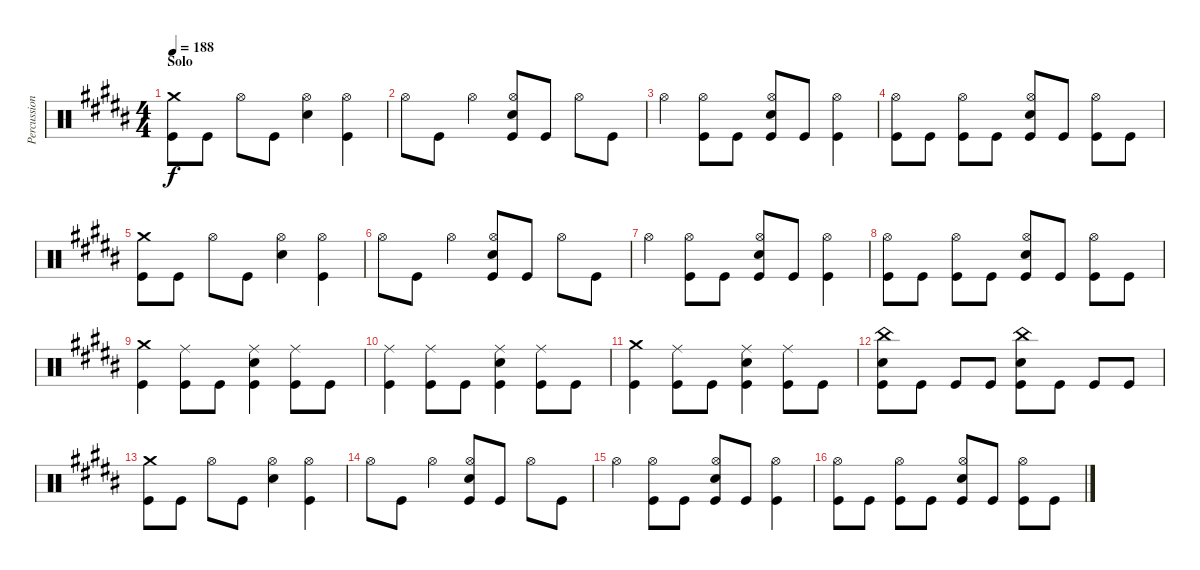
\track ("Percussion" "Percussion") {instrument percussion}
\staff {score}
\articulation defaults
\ts (4 4)
\section ("" "Solo")
\tempo 188
\clef neutral
\ks b
("Crash medium (hit)" "Kick (hit)").8{dy f} "Kick (hit)".8 "Hi-Hat (open)".8 "Kick (hit)".8 ("Hi-Hat (open)" "Electric Snare (hit)").4 ("Hi-Hat (open)" "Kick (hit)").4 |
"Hi-Hat (open)".8 "Kick (hit)".8 "Hi-Hat (open)".4 ("Hi-Hat (open)" "Electric Snare (hit)" "Kick (hit)").8 "Kick (hit)".8 "Hi-Hat (open)".8 "Kick (hit)".8 |
"Hi-Hat (open)".4 ("Hi-Hat (open)" "Kick (hit)").8 "Kick (hit)".8 ("Hi-Hat (open)" "Electric Snare (hit)" "Kick (hit)").8 "Kick (hit)".8 ("Hi-Hat (open)" "Kick (hit)").4 |
("Hi-Hat (open)" "Kick (hit)").8 "Kick (hit)".8 ("Hi-Hat (open)" "Kick (hit)").8 "Kick (hit)".8 ("Hi-Hat (open)" "Electric Snare (hit)" "Kick (hit)").8 "Kick (hit)".8 ("Hi-Hat (open)" "Kick (hit)").8 "Kick (hit)".8 |
("Crash medium (hit)" "Kick (hit)").8 "Kick (hit)".8 "Hi-Hat (open)".8 "Kick (hit)".8 ("Hi-Hat (open)" "Electric Snare (hit)").4 ("Hi-Hat (open)" "Kick (hit)").4 |
"Hi-Hat (open)".8 "Kick (hit)".8 "Hi-Hat (open)".4 ("Hi-Hat (open)" "Electric Snare (hit)" "Kick (hit)").8 "Kick (hit)".8 "Hi-Hat (open)".8 "Kick (hit)".8 |
"Hi-Hat (open)".4 ("Hi-Hat (open)" "Kick (hit)").8 "Kick (hit)".8 ("Hi-Hat (open)" "Electric Snare (hit)" "Kick (hit)").8 "Kick (hit)".8 ("Hi-Hat (open)" "Kick (hit)").4 |
("Hi-Hat (open)" "Kick (hit)").8 "Kick (hit)".8 ("Hi-Hat (open)" "Kick (hit)").8 "Kick (hit)".8 ("Hi-Hat (open)" "Electric Snare (hit)" "Kick (hit)").8 "Kick (hit)".8 ("Hi-Hat (open)" "Kick (hit)").8 "Kick (hit)".8 |
("Crash medium (hit)" "Kick (hit)").4 ("Ride (middle)" "Kick (hit)").8 "Kick (hit)".8 ("Ride (middle)" "Electric Snare (hit)" "Kick (hit)").4 ("Ride (middle)" "Kick (hit)").8 "Kick (hit)".8 |
("Ride (middle)" "Kick (hit)").4 ("Ride (middle)" "Kick (hit)").8 "Kick (hit)".8 ("Ride (middle)" "Electric Snare (hit)" "Kick (hit)").4 ("Ride (middle)" "Kick (hit)").8 "Kick (hit)".8 |
("Crash medium (hit)" "Kick (hit)").4 ("Ride (middle)" "Kick (hit)").8 "Kick (hit)".8 ("Ride (middle)" "Electric Snare (hit)" "Kick (hit)").4 ("Ride (middle)" "Kick (hit)").8 "Kick (hit)".8 |
("China (hit)" "Electric Snare (hit)" "Kick (hit)").8 "Kick (hit)".8 "Kick (hit)".8 "Kick (hit)".8 ("China (hit)" "Electric Snare (hit)" "Kick (hit)").8 "Kick (hit)".8 "Kick (hit)".8 "Kick (hit)".8 |
("Crash medium (hit)" "Kick (hit)").8 "Kick (hit)".8 "Hi-Hat (open)".8 "Kick (hit)".8 ("Hi-Hat (open)" "Electric Snare (hit)").4 ("Hi-Hat (open)" "Kick (hit)").4 |
"Hi-Hat (open)".8 "Kick (hit)".8 "Hi-Hat (open)".4 ("Hi-Hat (open)" "Electric Snare (hit)" "Kick (hit)").8 "Kick (hit)".8 "Hi-Hat (open)".8 "Kick (hit)".8 |
"Hi-Hat (open)".4 ("Hi-Hat (open)" "Kick (hit)").8 "Kick (hit)".8 ("Hi-Hat (open)" "Electric Snare (hit)" "Kick (hit)").8 "Kick (hit)".8 ("Hi-Hat (open)" "Kick (hit)").4 |
("Hi-Hat (open)" "Kick (hit)").8 "Kick (hit)".8 ("Hi-Hat (open)" "Kick (hit)").8 "Kick (hit)".8 ("Hi-Hat (open)" "Electric Snare (hit)" "Kick (hit)").8 "Kick (hit)".8 ("Hi-Hat (open)" "Kick (hit)").8 "Kick (hit)".8
